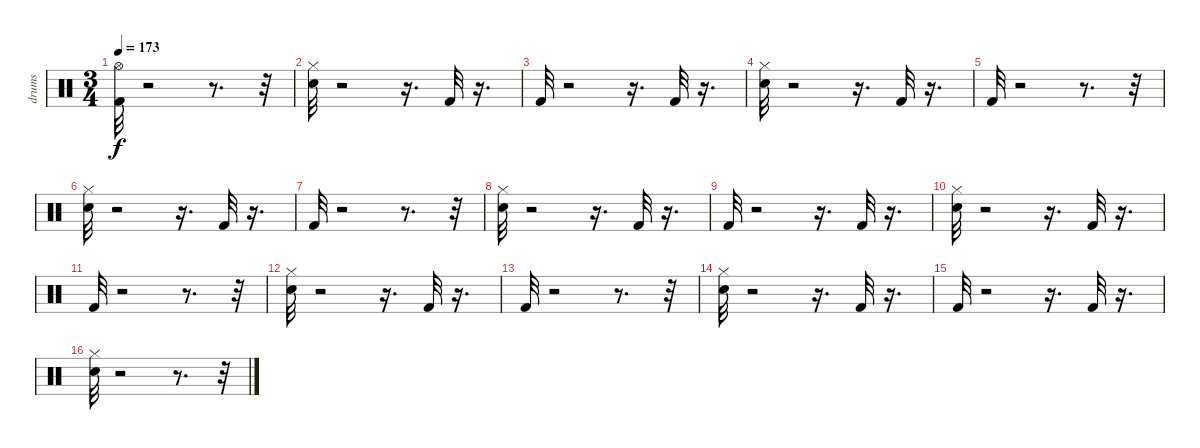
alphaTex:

\track ("drums" "drums") {instrument percussion}
\staff {score}
\articulation defaults
\ts (3 4)
\tempo 173
\clef neutral
\ks c
("Hi-Hat (open)" "Kick (hit) 2").32{dy f} r.2 r.8{d} r.32 |
("Hi-Hat (closed)" "Snare (hit) 2").32 r.2 r.16{d} "Kick (hit) 2".32 r.16{d} |
"Kick (hit) 2".32 r.2 r.16{d} "Kick (hit) 2".32 r.16{d} |
("Hi-Hat (closed)" "Snare (hit) 2").32 r.2 r.16{d} "Kick (hit) 2".32 r.16{d} |
"Kick (hit) 2".32 r.2 r.8{d} r.32 |
("Hi-Hat (closed)" "Snare (hit) 2").32 r.2 r.16{d} "Kick (hit) 2".32 r.16{d} |
"Kick (hit) 2".32 r.2 r.8{d} r.32 |
("Hi-Hat (closed)" "Snare (hit) 2").32 r.2 r.16{d} "Kick (hit) 2".32 r.16{d} |
"Kick (hit) 2".32 r.2 r.16{d} "Kick (hit) 2".32 r.16{d} |
("Hi-Hat (closed)" "Snare (hit) 2").32 r.2 r.16{d} "Kick (hit) 2".32 r.16{d} |
"Kick (hit) 2".32 r.2 r.8{d} r.32 |
("Snare (hit) 2" "Hi-Hat (closed)").32 r.2 r.16{d} "Kick (hit) 2".32 r.16{d} |
"Kick (hit) 2".32 r.2 r.8{d} r.32 |
("Hi-Hat (closed)" "Snare (hit) 2").32 r.2 r.16{d} "Kick (hit) 2".32 r.16{d} |
"Kick (hit) 2".32 r.2 r.16{d} "Kick (hit) 2".32 r.16{d} |
("Hi-Hat (closed)" "Snare (hit) 2").32 r.2 r.8{d} r.32
